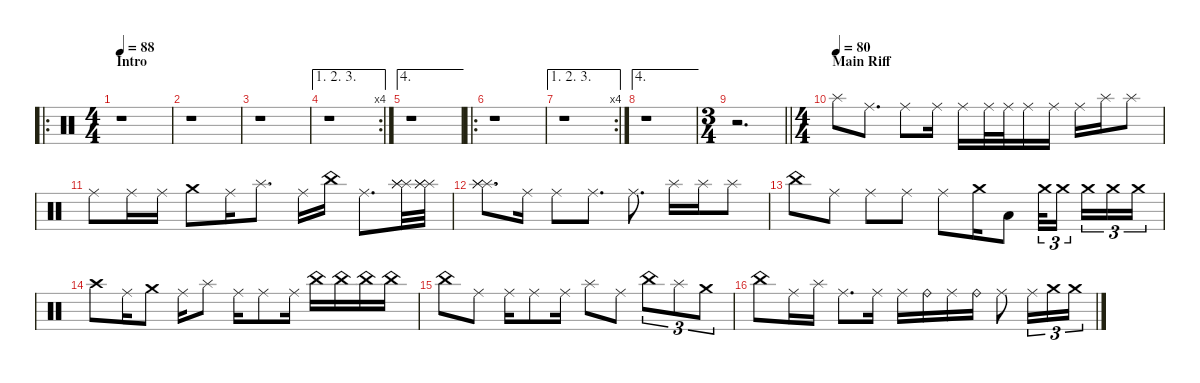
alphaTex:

\defaultSystemsLayout 4
\hideDynamics
\bracketExtendMode nobrackets
\singleTrackTrackNamePolicy hidden
\multiTrackTrackNamePolicy hidden
\firstSystemTrackNameMode fullname
\firstSystemTrackNameOrientation horizontal
\otherSystemsTrackNameOrientation horizontal
\track ("Percussions" "drm.") {defaultSystemsLayout 4 instrument percussion}
\staff {score}
\articulation defaults
\ro
\ts (4 4)
\beaming (8 2 2 2 2)
\section ("" "Intro")
\tempo 88
\clef neutral
\ks c
r.1{dy fff beam Down} |
r.1{beam Down} |
r.1{beam Down} |
\ae (1 2 3)
\rc 4
r.1{beam Down} |
\ae 4
r.1{beam Down} |
\ro
r.1{beam Down} |
\ae (1 2 3)
\rc 4
r.1{beam Down} |
\ae 4
r.1{beam Down} |
\ts (3 4)
\beaming (8 2 2 2)
\barLineRight lightlight
r.2{d beam Down} |
\ts (4 4)
\beaming (8 2 2 2 2)
\section ("" "Main Riff")
\tempo (80)
"Splash (hit)".8{beam Down} "Ride (middle)".8{d dy f beam Down} "Ride (middle)".8{beam Down} "Ride (middle)".16{beam Down} "Ride (middle)".16{beam Down} "Ride (middle)".32{beam Down} "Ride (middle)".32{beam Down} "Ride (middle)".16{beam Down} "Ride (middle)".16{beam Down} "Ride (middle)".16{beam Down} "Splash (hit)".16{dy fff beam Down} "Splash (hit)".8{beam Down} |
"Ride (middle)".8{dy f beam Down} "Ride (middle)".16{beam Down} "Ride (middle)".16{beam Down} "Crash medium (hit)".8{dy fff beam Down} "Ride (middle)".16{dy f beam Down} "Splash (hit)".8{d dy fff beam Down} "Ride (middle)".16{dy f beam Down} "China (hit)".16{dy fff beam Down} "Ride (middle)".8{d dy f beam Down} ("Splash (hit)" "Splash (hit)" "Splash (hit)").32{dy fff beam Down} ("Splash (hit)" "Splash (hit)" "Splash (hit)").32{beam Down} |
("Splash (hit)" "Splash (hit)" "Splash (hit)").8{d beam Down} "Ride (middle)".16{dy f beam Down} "Ride (middle)".8{beam Down} "Ride (middle)".8{d beam Down} "Ride (middle)".8{d dy fff beam Down} "Splash (hit)".16{beam Down} "Splash (hit)".16{beam Down} "Splash (hit)".8{beam Down} |
"China (hit)".8{beam Down} "Ride (middle)".8{dy f beam Down} "Ride (middle)".8{beam Down} "Ride (middle)".8{dy fff beam Down} "Ride (middle)".8{beam Down} "Crash medium (hit)".16{beam Down} "Low Floor Tom (hit)".8{beam Down} "Crash medium (hit)".32{tu (3 2) dy ppp beam Down} "Crash medium (hit)".16{tu (3 2) dy p beam Down} "Crash medium (hit)".16{tu (3 2) dy mf beam Down} "Crash medium (hit)".16{tu (3 2) dy f beam Down} "Crash medium (hit)".16{tu (3 2) beam Down} |
"Crash high (hit)".8{beam Down} "Ride (middle)".16{beam Down} "Crash medium (hit)".8{dy fff beam Down} "Ride (middle)".16{dy f beam Down} "Splash (hit)".8{dy fff beam Down} "Ride (middle)".16{beam Down} "Ride (middle)".8{beam Down} "Ride (middle)".16{beam Down} "China (hit)".16{dy pp beam Down} "China (hit)".16{dy p beam Down} "China (hit)".16{dy mp beam Down} "China (hit)".16{dy mf beam Down} |
"China (hit)".8{dy fff beam Down} "Ride (middle)".8{dy f beam Down} "Ride (middle)".16{beam Down} "Ride (middle)".8{beam Down} "Ride (middle)".16{beam Down} "Splash (hit)".8{dy fff beam Down} "Ride (middle)".8{dy f beam Down} "China (hit)".8{tu (3 2) dy fff beam Down} "Splash (hit)".8{tu (3 2) beam Down} "Crash medium (hit)".8{tu (3 2) beam Down} |
"China (hit)".8{beam Down} "Ride (middle)".16{dy f beam Down} "Splash (hit)".16{dy fff beam Down} "Ride (middle)".8{d dy f beam Down} "Ride (middle)".16{beam Down} "Ride (middle)".16{beam Down} "Ride (bell)".16{dy fff beam Down} "Ride (middle)".16{dy f beam Down} "Ride (bell)".16{dy fff beam Down} "Ride (middle)".8{dy f beam Down} "Ride (middle)".16{tu (3 2) beam Down} "Crash medium (hit)".16{tu (3 2) dy mp beam Down} "Crash medium (hit)".16{tu (3 2) dy f beam Down}
